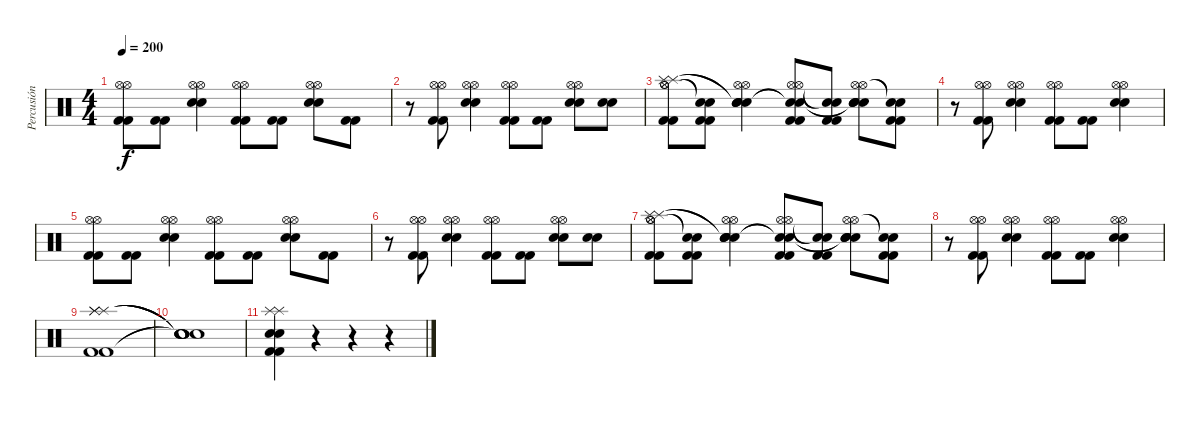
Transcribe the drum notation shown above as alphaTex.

\track ("Percusión" "Percusión") {instrument percussion}
\staff {score}
\articulation defaults
\ts (4 4)
\tempo 200
\clef neutral
\ks c
("Kick (hit) 2" "Kick (hit) 2" "Hi-Hat (open)" "Hi-Hat (open)").8{dy f} ("Kick (hit) 2" "Kick (hit) 2").8 ("Snare (hit) 2" "Snare (hit) 2" "Hi-Hat (open)" "Hi-Hat (open)").4 ("Kick (hit) 2" "Kick (hit) 2" "Hi-Hat (open)" "Hi-Hat (open)").8 ("Kick (hit) 2" "Kick (hit) 2").8 ("Snare (hit) 2" "Snare (hit) 2" "Hi-Hat (open)" "Hi-Hat (open)").8 ("Kick (hit) 2" "Kick (hit) 2").8 |
r.8 ("Kick (hit) 2" "Kick (hit) 2" "Hi-Hat (open)" "Hi-Hat (open)").8 ("Snare (hit) 2" "Snare (hit) 2" "Hi-Hat (open)" "Hi-Hat (open)").4 ("Kick (hit) 2" "Kick (hit) 2" "Hi-Hat (open)" "Hi-Hat (open)").8 ("Kick (hit) 2" "Kick (hit) 2").8 ("Snare (hit) 2" "Snare (hit) 2" "Hi-Hat (open)" "Hi-Hat (open)").8 ("Snare (hit) 2" "Snare (hit) 2").8 |
("Kick (hit) 2" "Kick (hit) 2" "Hi-Hat (open)" "Hi-Hat (open)" "Splash (hit)" "Splash (hit)").8 ("Kick (hit) 2" "Kick (hit) 2" "Snare (hit)"{t} "Snare (hit)"{t}).8 ("Snare (hit) 2" "Snare (hit) 2" "Hi-Hat (open)" "Hi-Hat (open)" "Snare (hit)"{t} "Snare (hit)"{t}).4 ("Kick (hit) 2" "Kick (hit) 2" "Hi-Hat (open)" "Hi-Hat (open)" "Snare (hit)"{t} "Snare (hit)"{t}).8 ("Kick (hit) 2" "Kick (hit) 2" "Snare (hit)"{t} "Snare (hit)"{t}).8 ("Snare (hit) 2" "Snare (hit) 2" "Hi-Hat (open)" "Hi-Hat (open)" "Snare (hit)"{t} "Snare (hit)"{t}).8 ("Kick (hit) 2" "Kick (hit) 2" "Snare (hit)"{t} "Snare (hit)"{t}).8 |
r.8 ("Kick (hit) 2" "Kick (hit) 2" "Hi-Hat (open)" "Hi-Hat (open)").8 ("Snare (hit) 2" "Snare (hit) 2" "Hi-Hat (open)" "Hi-Hat (open)").4 ("Kick (hit) 2" "Kick (hit) 2" "Hi-Hat (open)" "Hi-Hat (open)").8 ("Kick (hit) 2" "Kick (hit) 2").8 ("Snare (hit) 2" "Snare (hit) 2" "Hi-Hat (open)" "Hi-Hat (open)").4 |
("Kick (hit) 2" "Kick (hit) 2" "Hi-Hat (open)" "Hi-Hat (open)").8 ("Kick (hit) 2" "Kick (hit) 2").8 ("Snare (hit) 2" "Snare (hit) 2" "Hi-Hat (open)" "Hi-Hat (open)").4 ("Kick (hit) 2" "Kick (hit) 2" "Hi-Hat (open)" "Hi-Hat (open)").8 ("Kick (hit) 2" "Kick (hit) 2").8 ("Snare (hit) 2" "Snare (hit) 2" "Hi-Hat (open)" "Hi-Hat (open)").8 ("Kick (hit) 2" "Kick (hit) 2").8 |
r.8 ("Kick (hit) 2" "Kick (hit) 2" "Hi-Hat (open)" "Hi-Hat (open)").8 ("Snare (hit) 2" "Snare (hit) 2" "Hi-Hat (open)" "Hi-Hat (open)").4 ("Kick (hit) 2" "Kick (hit) 2" "Hi-Hat (open)" "Hi-Hat (open)").8 ("Kick (hit) 2" "Kick (hit) 2").8 ("Snare (hit) 2" "Snare (hit) 2" "Hi-Hat (open)" "Hi-Hat (open)").8 ("Snare (hit) 2" "Snare (hit) 2").8 |
("Kick (hit) 2" "Kick (hit) 2" "Hi-Hat (open)" "Hi-Hat (open)" "Splash (hit)" "Splash (hit)").8 ("Kick (hit) 2" "Kick (hit) 2" "Snare (hit)"{t} "Snare (hit)"{t}).8 ("Snare (hit) 2" "Snare (hit) 2" "Hi-Hat (open)" "Hi-Hat (open)" "Snare (hit)"{t} "Snare (hit)"{t}).4 ("Kick (hit) 2" "Kick (hit) 2" "Hi-Hat (open)" "Hi-Hat (open)" "Snare (hit)"{t} "Snare (hit)"{t}).8 ("Kick (hit) 2" "Kick (hit) 2" "Snare (hit)"{t} "Snare (hit)"{t}).8 ("Snare (hit) 2" "Snare (hit) 2" "Hi-Hat (open)" "Hi-Hat (open)" "Snare (hit)"{t} "Snare (hit)"{t}).8 ("Kick (hit) 2" "Kick (hit) 2" "Snare (hit)"{t} "Snare (hit)"{t}).8 |
r.8 ("Kick (hit) 2" "Kick (hit) 2" "Hi-Hat (open)" "Hi-Hat (open)").8 ("Snare (hit) 2" "Snare (hit) 2" "Hi-Hat (open)" "Hi-Hat (open)").4 ("Kick (hit) 2" "Kick (hit) 2" "Hi-Hat (open)" "Hi-Hat (open)").8 ("Kick (hit) 2" "Kick (hit) 2").8 ("Snare (hit) 2" "Snare (hit) 2" "Hi-Hat (open)" "Hi-Hat (open)").4 |
("Splash (hit)" "Splash (hit)" "Splash (hit)" "Kick (hit) 2" "Kick (hit) 2").1 |
("Snare (hit)"{t} "Snare (hit)"{t} "Snare (hit)"{t} "Snare (hit)"{t} "Snare (hit)"{t}).1 |
("Snare (hit) 2" "Snare (hit) 2" "Splash (hit)" "Splash (hit)" "Kick (hit) 2" "Kick (hit) 2").4 r.4 r.4 r.4
